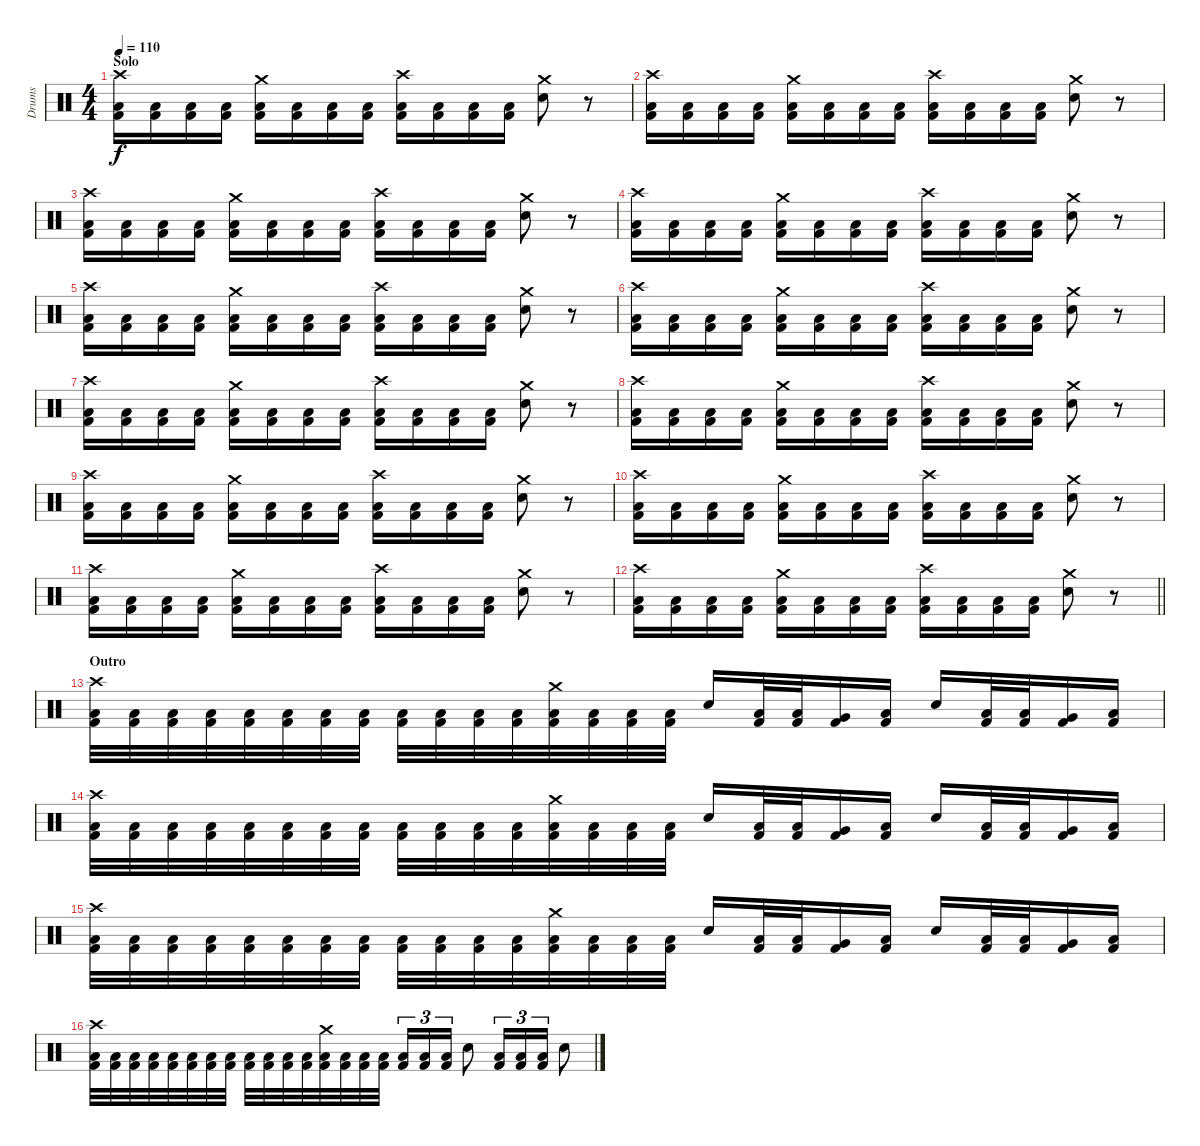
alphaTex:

\track ("Drums" "Drums") {instrument percussion}
\staff {score}
\articulation defaults
\ts (4 4)
\section ("" "Solo")
\tempo 110
\clef neutral
\ks c
("Crash high (hit)" "Low Floor Tom (hit)" "Kick (hit) 2").16{dy f} ("Low Floor Tom (hit)" "Kick (hit) 2").16 ("Low Floor Tom (hit)" "Kick (hit) 2").16 ("Low Floor Tom (hit)" "Kick (hit) 2").16 ("Crash medium (hit)" "Low Floor Tom (hit)" "Kick (hit) 2").16 ("Low Floor Tom (hit)" "Kick (hit) 2").16 ("Low Floor Tom (hit)" "Kick (hit) 2").16 ("Low Floor Tom (hit)" "Kick (hit) 2").16 ("Crash high (hit)" "Low Floor Tom (hit)" "Kick (hit) 2").16 ("Low Floor Tom (hit)" "Kick (hit) 2").16 ("Low Floor Tom (hit)" "Kick (hit) 2").16 ("Low Floor Tom (hit)" "Kick (hit) 2").16 ("Crash medium (hit)" "Snare (hit) 2").8 r.8 |
("Crash high (hit)" "Low Floor Tom (hit)" "Kick (hit) 2").16 ("Low Floor Tom (hit)" "Kick (hit) 2").16 ("Low Floor Tom (hit)" "Kick (hit) 2").16 ("Low Floor Tom (hit)" "Kick (hit) 2").16 ("Crash medium (hit)" "Low Floor Tom (hit)" "Kick (hit) 2").16 ("Low Floor Tom (hit)" "Kick (hit) 2").16 ("Low Floor Tom (hit)" "Kick (hit) 2").16 ("Low Floor Tom (hit)" "Kick (hit) 2").16 ("Crash high (hit)" "Low Floor Tom (hit)" "Kick (hit) 2").16 ("Low Floor Tom (hit)" "Kick (hit) 2").16 ("Low Floor Tom (hit)" "Kick (hit) 2").16 ("Low Floor Tom (hit)" "Kick (hit) 2").16 ("Crash medium (hit)" "Snare (hit) 2").8 r.8 |
("Crash high (hit)" "Low Floor Tom (hit)" "Kick (hit) 2").16 ("Low Floor Tom (hit)" "Kick (hit) 2").16 ("Low Floor Tom (hit)" "Kick (hit) 2").16 ("Low Floor Tom (hit)" "Kick (hit) 2").16 ("Crash medium (hit)" "Low Floor Tom (hit)" "Kick (hit) 2").16 ("Low Floor Tom (hit)" "Kick (hit) 2").16 ("Low Floor Tom (hit)" "Kick (hit) 2").16 ("Low Floor Tom (hit)" "Kick (hit) 2").16 ("Crash high (hit)" "Low Floor Tom (hit)" "Kick (hit) 2").16 ("Low Floor Tom (hit)" "Kick (hit) 2").16 ("Low Floor Tom (hit)" "Kick (hit) 2").16 ("Low Floor Tom (hit)" "Kick (hit) 2").16 ("Crash medium (hit)" "Snare (hit) 2").8 r.8 |
("Crash high (hit)" "Low Floor Tom (hit)" "Kick (hit) 2").16 ("Low Floor Tom (hit)" "Kick (hit) 2").16 ("Low Floor Tom (hit)" "Kick (hit) 2").16 ("Low Floor Tom (hit)" "Kick (hit) 2").16 ("Crash medium (hit)" "Low Floor Tom (hit)" "Kick (hit) 2").16 ("Low Floor Tom (hit)" "Kick (hit) 2").16 ("Low Floor Tom (hit)" "Kick (hit) 2").16 ("Low Floor Tom (hit)" "Kick (hit) 2").16 ("Crash high (hit)" "Low Floor Tom (hit)" "Kick (hit) 2").16 ("Low Floor Tom (hit)" "Kick (hit) 2").16 ("Low Floor Tom (hit)" "Kick (hit) 2").16 ("Low Floor Tom (hit)" "Kick (hit) 2").16 ("Crash medium (hit)" "Snare (hit) 2").8 r.8 |
("Crash high (hit)" "Low Floor Tom (hit)" "Kick (hit) 2").16 ("Low Floor Tom (hit)" "Kick (hit) 2").16 ("Low Floor Tom (hit)" "Kick (hit) 2").16 ("Low Floor Tom (hit)" "Kick (hit) 2").16 ("Crash medium (hit)" "Low Floor Tom (hit)" "Kick (hit) 2").16 ("Low Floor Tom (hit)" "Kick (hit) 2").16 ("Low Floor Tom (hit)" "Kick (hit) 2").16 ("Low Floor Tom (hit)" "Kick (hit) 2").16 ("Crash high (hit)" "Low Floor Tom (hit)" "Kick (hit) 2").16 ("Low Floor Tom (hit)" "Kick (hit) 2").16 ("Low Floor Tom (hit)" "Kick (hit) 2").16 ("Low Floor Tom (hit)" "Kick (hit) 2").16 ("Crash medium (hit)" "Snare (hit) 2").8 r.8 |
("Crash high (hit)" "Low Floor Tom (hit)" "Kick (hit) 2").16 ("Low Floor Tom (hit)" "Kick (hit) 2").16 ("Low Floor Tom (hit)" "Kick (hit) 2").16 ("Low Floor Tom (hit)" "Kick (hit) 2").16 ("Crash medium (hit)" "Low Floor Tom (hit)" "Kick (hit) 2").16 ("Low Floor Tom (hit)" "Kick (hit) 2").16 ("Low Floor Tom (hit)" "Kick (hit) 2").16 ("Low Floor Tom (hit)" "Kick (hit) 2").16 ("Crash high (hit)" "Low Floor Tom (hit)" "Kick (hit) 2").16 ("Low Floor Tom (hit)" "Kick (hit) 2").16 ("Low Floor Tom (hit)" "Kick (hit) 2").16 ("Low Floor Tom (hit)" "Kick (hit) 2").16 ("Crash medium (hit)" "Snare (hit) 2").8 r.8 |
("Crash high (hit)" "Low Floor Tom (hit)" "Kick (hit) 2").16 ("Low Floor Tom (hit)" "Kick (hit) 2").16 ("Low Floor Tom (hit)" "Kick (hit) 2").16 ("Low Floor Tom (hit)" "Kick (hit) 2").16 ("Crash medium (hit)" "Low Floor Tom (hit)" "Kick (hit) 2").16 ("Low Floor Tom (hit)" "Kick (hit) 2").16 ("Low Floor Tom (hit)" "Kick (hit) 2").16 ("Low Floor Tom (hit)" "Kick (hit) 2").16 ("Crash high (hit)" "Low Floor Tom (hit)" "Kick (hit) 2").16 ("Low Floor Tom (hit)" "Kick (hit) 2").16 ("Low Floor Tom (hit)" "Kick (hit) 2").16 ("Low Floor Tom (hit)" "Kick (hit) 2").16 ("Crash medium (hit)" "Snare (hit) 2").8 r.8 |
("Crash high (hit)" "Low Floor Tom (hit)" "Kick (hit) 2").16 ("Low Floor Tom (hit)" "Kick (hit) 2").16 ("Low Floor Tom (hit)" "Kick (hit) 2").16 ("Low Floor Tom (hit)" "Kick (hit) 2").16 ("Crash medium (hit)" "Low Floor Tom (hit)" "Kick (hit) 2").16 ("Low Floor Tom (hit)" "Kick (hit) 2").16 ("Low Floor Tom (hit)" "Kick (hit) 2").16 ("Low Floor Tom (hit)" "Kick (hit) 2").16 ("Crash high (hit)" "Low Floor Tom (hit)" "Kick (hit) 2").16 ("Low Floor Tom (hit)" "Kick (hit) 2").16 ("Low Floor Tom (hit)" "Kick (hit) 2").16 ("Low Floor Tom (hit)" "Kick (hit) 2").16 ("Crash medium (hit)" "Snare (hit) 2").8 r.8 |
("Crash high (hit)" "Low Floor Tom (hit)" "Kick (hit) 2").16 ("Low Floor Tom (hit)" "Kick (hit) 2").16 ("Low Floor Tom (hit)" "Kick (hit) 2").16 ("Low Floor Tom (hit)" "Kick (hit) 2").16 ("Crash medium (hit)" "Low Floor Tom (hit)" "Kick (hit) 2").16 ("Low Floor Tom (hit)" "Kick (hit) 2").16 ("Low Floor Tom (hit)" "Kick (hit) 2").16 ("Low Floor Tom (hit)" "Kick (hit) 2").16 ("Crash high (hit)" "Low Floor Tom (hit)" "Kick (hit) 2").16 ("Low Floor Tom (hit)" "Kick (hit) 2").16 ("Low Floor Tom (hit)" "Kick (hit) 2").16 ("Low Floor Tom (hit)" "Kick (hit) 2").16 ("Crash medium (hit)" "Snare (hit) 2").8 r.8 |
("Crash high (hit)" "Low Floor Tom (hit)" "Kick (hit) 2").16 ("Low Floor Tom (hit)" "Kick (hit) 2").16 ("Low Floor Tom (hit)" "Kick (hit) 2").16 ("Low Floor Tom (hit)" "Kick (hit) 2").16 ("Crash medium (hit)" "Low Floor Tom (hit)" "Kick (hit) 2").16 ("Low Floor Tom (hit)" "Kick (hit) 2").16 ("Low Floor Tom (hit)" "Kick (hit) 2").16 ("Low Floor Tom (hit)" "Kick (hit) 2").16 ("Crash high (hit)" "Low Floor Tom (hit)" "Kick (hit) 2").16 ("Low Floor Tom (hit)" "Kick (hit) 2").16 ("Low Floor Tom (hit)" "Kick (hit) 2").16 ("Low Floor Tom (hit)" "Kick (hit) 2").16 ("Crash medium (hit)" "Snare (hit) 2").8 r.8 |
("Crash high (hit)" "Low Floor Tom (hit)" "Kick (hit) 2").16 ("Low Floor Tom (hit)" "Kick (hit) 2").16 ("Low Floor Tom (hit)" "Kick (hit) 2").16 ("Low Floor Tom (hit)" "Kick (hit) 2").16 ("Crash medium (hit)" "Low Floor Tom (hit)" "Kick (hit) 2").16 ("Low Floor Tom (hit)" "Kick (hit) 2").16 ("Low Floor Tom (hit)" "Kick (hit) 2").16 ("Low Floor Tom (hit)" "Kick (hit) 2").16 ("Crash high (hit)" "Low Floor Tom (hit)" "Kick (hit) 2").16 ("Low Floor Tom (hit)" "Kick (hit) 2").16 ("Low Floor Tom (hit)" "Kick (hit) 2").16 ("Low Floor Tom (hit)" "Kick (hit) 2").16 ("Crash medium (hit)" "Snare (hit) 2").8 r.8 |
\barLineRight lightlight
("Crash high (hit)" "Low Floor Tom (hit)" "Kick (hit) 2").16 ("Low Floor Tom (hit)" "Kick (hit) 2").16 ("Low Floor Tom (hit)" "Kick (hit) 2").16 ("Low Floor Tom (hit)" "Kick (hit) 2").16 ("Crash medium (hit)" "Low Floor Tom (hit)" "Kick (hit) 2").16 ("Low Floor Tom (hit)" "Kick (hit) 2").16 ("Low Floor Tom (hit)" "Kick (hit) 2").16 ("Low Floor Tom (hit)" "Kick (hit) 2").16 ("Crash high (hit)" "Low Floor Tom (hit)" "Kick (hit) 2").16 ("Low Floor Tom (hit)" "Kick (hit) 2").16 ("Low Floor Tom (hit)" "Kick (hit) 2").16 ("Low Floor Tom (hit)" "Kick (hit) 2").16 ("Crash medium (hit)" "Snare (hit) 2").8 r.8 |
\section ("" "Outro")
("Crash high (hit)" "Low Floor Tom (hit)" "Kick (hit) 2").32 ("Low Floor Tom (hit)" "Kick (hit) 2").32 ("Low Floor Tom (hit)" "Kick (hit) 2").32 ("Low Floor Tom (hit)" "Kick (hit) 2").32 ("Low Floor Tom (hit)" "Kick (hit) 2").32 ("Low Floor Tom (hit)" "Kick (hit) 2").32 ("Low Floor Tom (hit)" "Kick (hit) 2").32 ("Low Floor Tom (hit)" "Kick (hit) 2").32 ("Low Floor Tom (hit)" "Kick (hit) 2").32 ("Low Floor Tom (hit)" "Kick (hit) 2").32 ("Low Floor Tom (hit)" "Kick (hit) 2").32 ("Low Floor Tom (hit)" "Kick (hit) 2").32 ("Crash medium (hit)" "Low Floor Tom (hit)" "Kick (hit) 2").32 ("Low Floor Tom (hit)" "Kick (hit) 2").32 ("Low Floor Tom (hit)" "Kick (hit) 2").32 ("Low Floor Tom (hit)" "Kick (hit) 2").32 "Snare (hit) 2".16 ("Low Tom (hit)" "Kick (hit) 2").32 ("Low Tom (hit)" "Kick (hit) 2").32 ("Very Low Tom (hit)" "Kick (hit) 2").16 ("Low Floor Tom (hit)" "Kick (hit) 2").16 "Snare (hit) 2".16 ("Low Tom (hit)" "Kick (hit) 2").32 ("Low Tom (hit)" "Kick (hit) 2").32 ("Very Low Tom (hit)" "Kick (hit) 2").16 ("Low Floor Tom (hit)" "Kick (hit) 2").16 |
("Crash high (hit)" "Low Floor Tom (hit)" "Kick (hit) 2").32 ("Low Floor Tom (hit)" "Kick (hit) 2").32 ("Low Floor Tom (hit)" "Kick (hit) 2").32 ("Low Floor Tom (hit)" "Kick (hit) 2").32 ("Low Floor Tom (hit)" "Kick (hit) 2").32 ("Low Floor Tom (hit)" "Kick (hit) 2").32 ("Low Floor Tom (hit)" "Kick (hit) 2").32 ("Low Floor Tom (hit)" "Kick (hit) 2").32 ("Low Floor Tom (hit)" "Kick (hit) 2").32 ("Low Floor Tom (hit)" "Kick (hit) 2").32 ("Low Floor Tom (hit)" "Kick (hit) 2").32 ("Low Floor Tom (hit)" "Kick (hit) 2").32 ("Crash medium (hit)" "Low Floor Tom (hit)" "Kick (hit) 2").32 ("Low Floor Tom (hit)" "Kick (hit) 2").32 ("Low Floor Tom (hit)" "Kick (hit) 2").32 ("Low Floor Tom (hit)" "Kick (hit) 2").32 "Snare (hit) 2".16 ("Low Tom (hit)" "Kick (hit) 2").32 ("Low Tom (hit)" "Kick (hit) 2").32 ("Very Low Tom (hit)" "Kick (hit) 2").16 ("Low Floor Tom (hit)" "Kick (hit) 2").16 "Snare (hit) 2".16 ("Low Tom (hit)" "Kick (hit) 2").32 ("Low Tom (hit)" "Kick (hit) 2").32 ("Very Low Tom (hit)" "Kick (hit) 2").16 ("Low Floor Tom (hit)" "Kick (hit) 2").16 |
("Crash high (hit)" "Low Floor Tom (hit)" "Kick (hit) 2").32 ("Low Floor Tom (hit)" "Kick (hit) 2").32 ("Low Floor Tom (hit)" "Kick (hit) 2").32 ("Low Floor Tom (hit)" "Kick (hit) 2").32 ("Low Floor Tom (hit)" "Kick (hit) 2").32 ("Low Floor Tom (hit)" "Kick (hit) 2").32 ("Low Floor Tom (hit)" "Kick (hit) 2").32 ("Low Floor Tom (hit)" "Kick (hit) 2").32 ("Low Floor Tom (hit)" "Kick (hit) 2").32 ("Low Floor Tom (hit)" "Kick (hit) 2").32 ("Low Floor Tom (hit)" "Kick (hit) 2").32 ("Low Floor Tom (hit)" "Kick (hit) 2").32 ("Crash medium (hit)" "Low Floor Tom (hit)" "Kick (hit) 2").32 ("Low Floor Tom (hit)" "Kick (hit) 2").32 ("Low Floor Tom (hit)" "Kick (hit) 2").32 ("Low Floor Tom (hit)" "Kick (hit) 2").32 "Snare (hit) 2".16 ("Low Tom (hit)" "Kick (hit) 2").32 ("Low Tom (hit)" "Kick (hit) 2").32 ("Very Low Tom (hit)" "Kick (hit) 2").16 ("Low Floor Tom (hit)" "Kick (hit) 2").16 "Snare (hit) 2".16 ("Low Tom (hit)" "Kick (hit) 2").32 ("Low Tom (hit)" "Kick (hit) 2").32 ("Very Low Tom (hit)" "Kick (hit) 2").16 ("Low Floor Tom (hit)" "Kick (hit) 2").16 |
("Crash high (hit)" "Low Floor Tom (hit)" "Kick (hit) 2").32 ("Low Floor Tom (hit)" "Kick (hit) 2").32 ("Low Floor Tom (hit)" "Kick (hit) 2").32 ("Low Floor Tom (hit)" "Kick (hit) 2").32 ("Low Floor Tom (hit)" "Kick (hit) 2").32 ("Low Floor Tom (hit)" "Kick (hit) 2").32 ("Low Floor Tom (hit)" "Kick (hit) 2").32 ("Low Floor Tom (hit)" "Kick (hit) 2").32 ("Low Floor Tom (hit)" "Kick (hit) 2").32 ("Low Floor Tom (hit)" "Kick (hit) 2").32 ("Low Floor Tom (hit)" "Kick (hit) 2").32 ("Low Floor Tom (hit)" "Kick (hit) 2").32 ("Crash medium (hit)" "Low Floor Tom (hit)" "Kick (hit) 2").32 ("Low Floor Tom (hit)" "Kick (hit) 2").32 ("Low Floor Tom (hit)" "Kick (hit) 2").32 ("Low Floor Tom (hit)" "Kick (hit) 2").32 ("Low Floor Tom (hit)" "Kick (hit) 2").16{tu (3 2)} ("Low Floor Tom (hit)" "Kick (hit) 2").16{tu (3 2)} ("Low Floor Tom (hit)" "Kick (hit) 2").16{tu (3 2)} "Snare (hit) 2".8 ("Low Floor Tom (hit)" "Kick (hit) 2").16{tu (3 2)} ("Low Floor Tom (hit)" "Kick (hit) 2").16{tu (3 2)} ("Low Floor Tom (hit)" "Kick (hit) 2").16{tu (3 2)} "Snare (hit) 2".8
